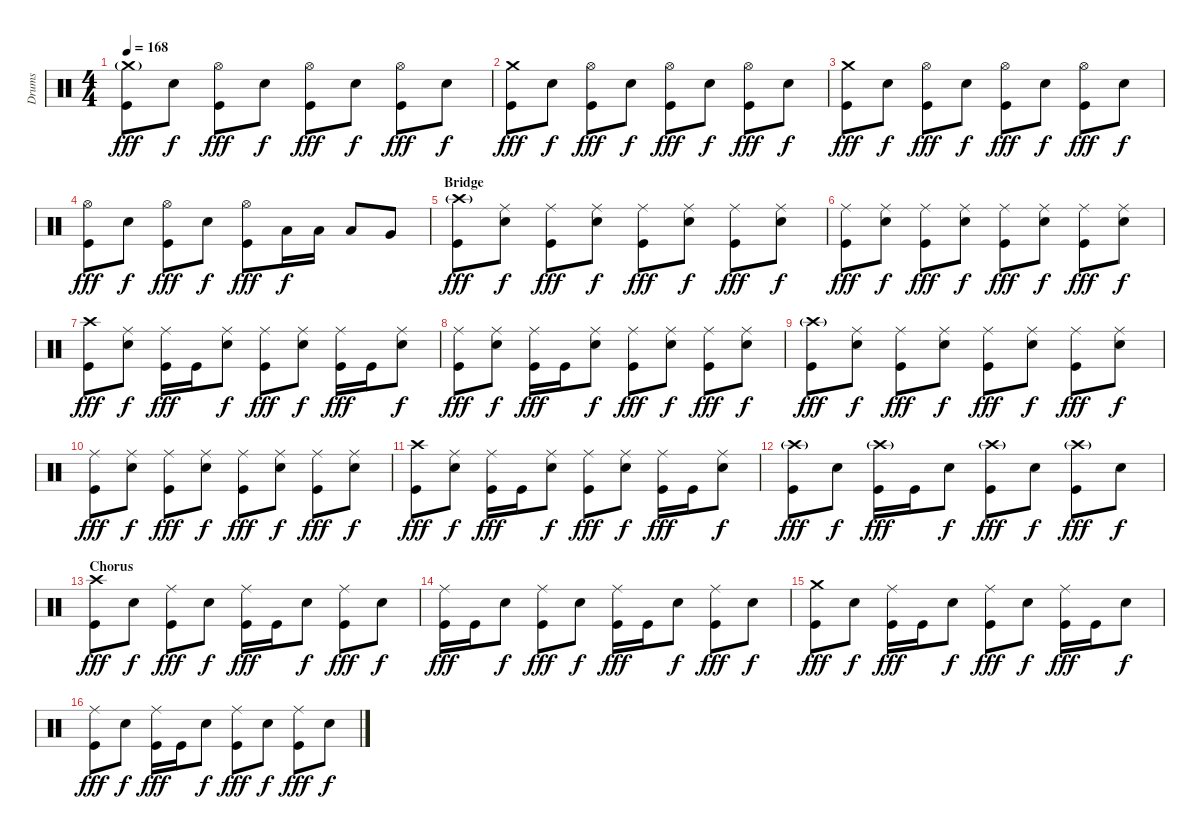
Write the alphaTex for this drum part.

\track ("Drums" "Drums") {instrument percussion}
\staff {score}
\articulation defaults
\ts (4 4)
\tempo 168
\clef neutral
\ks c
("Crash medium (hit)"{g} "Kick (hit)").8{dy fff} "Snare (hit) 2".8{dy f} ("Hi-Hat (open)" "Kick (hit)").8{dy fff} "Snare (hit) 2".8{dy f} ("Hi-Hat (open)" "Kick (hit)").8{dy fff} "Snare (hit) 2".8{dy f} ("Hi-Hat (open)" "Kick (hit)").8{dy fff} "Snare (hit) 2".8{dy f} |
("Crash medium (hit)" "Kick (hit)").8{dy fff} "Snare (hit) 2".8{dy f} ("Hi-Hat (open)" "Kick (hit)").8{dy fff} "Snare (hit) 2".8{dy f} ("Hi-Hat (open)" "Kick (hit)").8{dy fff} "Snare (hit) 2".8{dy f} ("Hi-Hat (open)" "Kick (hit)").8{dy fff} "Snare (hit) 2".8{dy f} |
("Crash medium (hit)" "Kick (hit)").8{dy fff} "Snare (hit) 2".8{dy f} ("Hi-Hat (open)" "Kick (hit)").8{dy fff} "Snare (hit) 2".8{dy f} ("Hi-Hat (open)" "Kick (hit)").8{dy fff} "Snare (hit) 2".8{dy f} ("Hi-Hat (open)" "Kick (hit)").8{dy fff} "Snare (hit) 2".8{dy f} |
("Hi-Hat (open)" "Kick (hit)").8{dy fff} "Snare (hit) 2".8{dy f} ("Hi-Hat (open)" "Kick (hit)").8{dy fff} "Snare (hit) 2".8{dy f} ("Hi-Hat (open)" "Kick (hit)").8{dy fff} "Low Tom (hit)".16{dy f} "Low Tom (hit)".16 "Low Tom (hit)".8 "Very Low Tom (hit)".8 |
\section ("" "Bridge")
("Crash high (hit)"{g} "Kick (hit)").8{dy fff} ("Ride (middle)" "Snare (hit) 2").8{dy f} ("Ride (middle)" "Kick (hit)").8{dy fff} ("Ride (middle)" "Snare (hit) 2").8{dy f} ("Ride (middle)" "Kick (hit)").8{dy fff} ("Ride (middle)" "Snare (hit) 2").8{dy f} ("Ride (middle)" "Kick (hit)").8{dy fff} ("Ride (middle)" "Snare (hit) 2").8{dy f} |
("Ride (middle)" "Kick (hit)").8{dy fff} ("Ride (middle)" "Snare (hit) 2").8{dy f} ("Ride (middle)" "Kick (hit)").8{dy fff} ("Ride (middle)" "Snare (hit) 2").8{dy f} ("Ride (middle)" "Kick (hit)").8{dy fff} ("Ride (middle)" "Snare (hit) 2").8{dy f} ("Ride (middle)" "Kick (hit)").8{dy fff} ("Ride (middle)" "Snare (hit) 2").8{dy f} |
("Crash high (hit)" "Kick (hit)").8{dy fff} ("Ride (middle)" "Snare (hit) 2").8{dy f} ("Ride (middle)" "Kick (hit)").16{dy fff} "Kick (hit)".16 ("Ride (middle)" "Snare (hit) 2").8{dy f} ("Ride (middle)" "Kick (hit)").8{dy fff} ("Ride (middle)" "Snare (hit) 2").8{dy f} ("Ride (middle)" "Kick (hit)").16{dy fff} "Kick (hit)".16 ("Ride (middle)" "Snare (hit) 2").8{dy f} |
("Ride (middle)" "Kick (hit)").8{dy fff} ("Ride (middle)" "Snare (hit) 2").8{dy f} ("Ride (middle)" "Kick (hit)").16{dy fff} "Kick (hit)".16 ("Ride (middle)" "Snare (hit) 2").8{dy f} ("Ride (middle)" "Kick (hit)").8{dy fff} ("Ride (middle)" "Snare (hit) 2").8{dy f} ("Ride (middle)" "Kick (hit)").8{dy fff} ("Ride (middle)" "Snare (hit) 2").8{dy f} |
("Crash high (hit)"{g} "Kick (hit)").8{dy fff} ("Ride (middle)" "Snare (hit) 2").8{dy f} ("Ride (middle)" "Kick (hit)").8{dy fff} ("Ride (middle)" "Snare (hit) 2").8{dy f} ("Ride (middle)" "Kick (hit)").8{dy fff} ("Ride (middle)" "Snare (hit) 2").8{dy f} ("Ride (middle)" "Kick (hit)").8{dy fff} ("Ride (middle)" "Snare (hit) 2").8{dy f} |
("Ride (middle)" "Kick (hit)").8{dy fff} ("Ride (middle)" "Snare (hit) 2").8{dy f} ("Ride (middle)" "Kick (hit)").8{dy fff} ("Ride (middle)" "Snare (hit) 2").8{dy f} ("Ride (middle)" "Kick (hit)").8{dy fff} ("Ride (middle)" "Snare (hit) 2").8{dy f} ("Ride (middle)" "Kick (hit)").8{dy fff} ("Ride (middle)" "Snare (hit) 2").8{dy f} |
("Crash high (hit)" "Kick (hit)").8{dy fff} ("Ride (middle)" "Snare (hit) 2").8{dy f} ("Ride (middle)" "Kick (hit)").16{dy fff} "Kick (hit)".16 ("Ride (middle)" "Snare (hit) 2").8{dy f} ("Ride (middle)" "Kick (hit)").8{dy fff} ("Ride (middle)" "Snare (hit) 2").8{dy f} ("Ride (middle)" "Kick (hit)").16{dy fff} "Kick (hit)".16 ("Ride (middle)" "Snare (hit) 2").8{dy f} |
("Crash high (hit)"{g} "Kick (hit)").8{dy fff} "Snare (hit) 2".8{dy f} ("Crash high (hit)"{g} "Kick (hit)").16{dy fff} "Kick (hit)".16 "Snare (hit) 2".8{dy f} ("Crash high (hit)"{g} "Kick (hit)").8{dy fff} "Snare (hit) 2".8{dy f} ("Crash high (hit)"{g} "Kick (hit)").8{dy fff} "Snare (hit) 2".8{dy f} |
\section ("" "Chorus")
("Crash high (hit)" "Kick (hit)").8{dy fff} "Snare (hit) 2".8{dy f} ("Ride (middle)" "Kick (hit)").8{dy fff} "Snare (hit) 2".8{dy f} ("Ride (middle)" "Kick (hit)").16{dy fff} "Kick (hit)".16 "Snare (hit) 2".8{dy f} ("Ride (middle)" "Kick (hit)").8{dy fff} "Snare (hit) 2".8{dy f} |
("Ride (middle)" "Kick (hit)").16{dy fff} "Kick (hit)".16 "Snare (hit) 2".8{dy f} ("Ride (middle)" "Kick (hit)").8{dy fff} "Snare (hit) 2".8{dy f} ("Ride (middle)" "Kick (hit)").16{dy fff} "Kick (hit)".16 "Snare (hit) 2".8{dy f} ("Ride (middle)" "Kick (hit)").8{dy fff} "Snare (hit) 2".8{dy f} |
("Crash medium (hit)" "Kick (hit)").8{dy fff} "Snare (hit) 2".8{dy f} ("Ride (middle)" "Kick (hit)").16{dy fff} "Kick (hit)".16 "Snare (hit) 2".8{dy f} ("Ride (middle)" "Kick (hit)").8{dy fff} "Snare (hit) 2".8{dy f} ("Ride (middle)" "Kick (hit)").16{dy fff} "Kick (hit)".16 "Snare (hit) 2".8{dy f} |
("Ride (middle)" "Kick (hit)").8{dy fff} "Snare (hit) 2".8{dy f} ("Ride (middle)" "Kick (hit)").16{dy fff} "Kick (hit)".16 "Snare (hit) 2".8{dy f} ("Ride (middle)" "Kick (hit)").8{dy fff} "Snare (hit) 2".8{dy f} ("Ride (middle)" "Kick (hit)").8{dy fff} "Snare (hit) 2".8{dy f}
